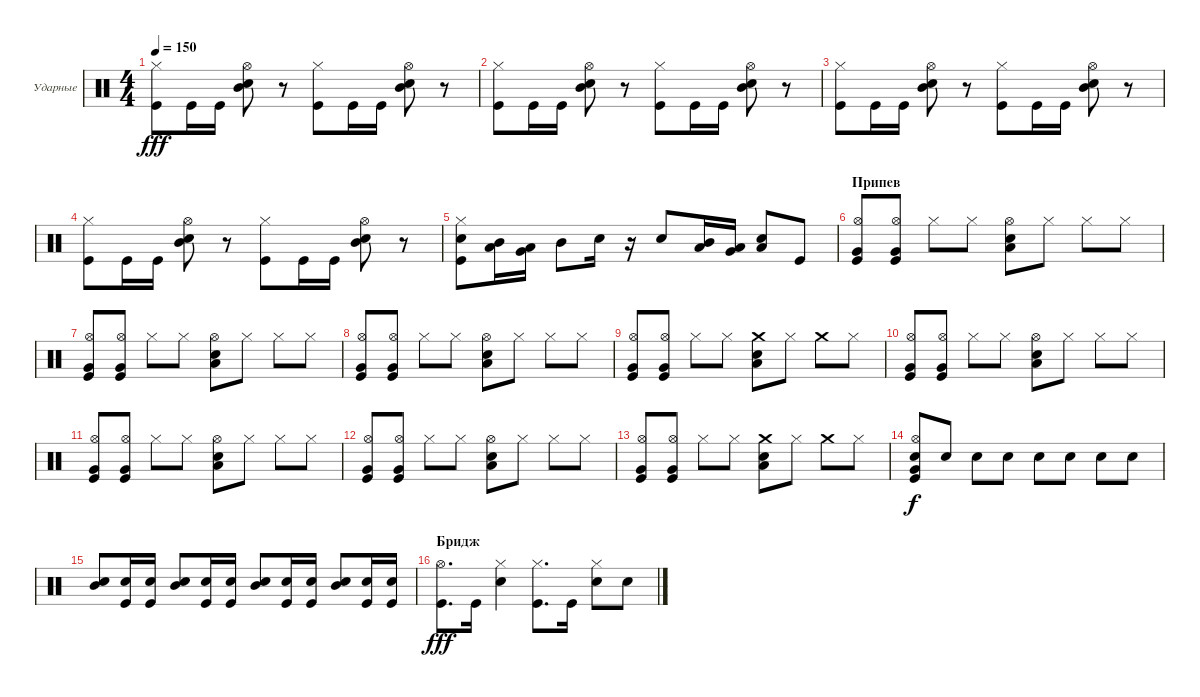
\bracketExtendMode groupsimilarinstruments
\firstSystemTrackNameOrientation horizontal
\otherSystemsTrackNameOrientation horizontal
\track ("Максим Удалов" "Ударные") {instrument percussion}
\staff {score}
\articulation defaults
\ts (4 4)
\tempo 150
\clef neutral
\ks c
("Hi-Hat (closed)" "Kick (hit)").8{dy fff} "Kick (hit)".16 "Kick (hit)".16 ("Hi-Hat (open)" "Mid Tom (hit)" "Snare (hit) 2").8 r.8 ("Hi-Hat (closed)" "Kick (hit)").8 "Kick (hit)".16 "Kick (hit)".16 ("Hi-Hat (open)" "Mid Tom (hit)" "Snare (hit) 2").8 r.8 |
("Hi-Hat (closed)" "Kick (hit)").8 "Kick (hit)".16 "Kick (hit)".16 ("Hi-Hat (open)" "Mid Tom (hit)" "Snare (hit) 2").8 r.8 ("Hi-Hat (closed)" "Kick (hit)").8 "Kick (hit)".16 "Kick (hit)".16 ("Hi-Hat (open)" "Mid Tom (hit)" "Snare (hit) 2").8 r.8 |
("Hi-Hat (closed)" "Kick (hit)").8 "Kick (hit)".16 "Kick (hit)".16 ("Hi-Hat (open)" "Mid Tom (hit)" "Snare (hit) 2").8 r.8 ("Hi-Hat (closed)" "Kick (hit)").8 "Kick (hit)".16 "Kick (hit)".16 ("Hi-Hat (open)" "Mid Tom (hit)" "Snare (hit) 2").8 r.8 |
("Hi-Hat (closed)" "Kick (hit)").8 "Kick (hit)".16 "Kick (hit)".16 ("Hi-Hat (open)" "Mid Tom (hit)" "Snare (hit) 2").8 r.8 ("Hi-Hat (closed)" "Kick (hit)").8 "Kick (hit)".16 "Kick (hit)".16 ("Hi-Hat (open)" "Mid Tom (hit)" "Snare (hit) 2").8 r.8 |
("Hi-Hat (closed)" "Snare (hit) 2" "Kick (hit)").8 ("Mid Tom (hit)" "Low Tom (hit)").16 ("Low Tom (hit)" "Very Low Tom (hit)").16 "Mid Tom (hit)".8 "Snare (hit) 2".16 r.16 "Snare (hit) 2".8 ("Mid Tom (hit)" "Low Tom (hit)").16 ("Low Tom (hit)" "Very Low Tom (hit)").16 ("Snare (hit) 2" "Low Tom (hit)").8 "Kick (hit)".8 |
\section ("" "Припев")
("Hi-Hat (open)" "Very Low Tom (hit)" "Kick (hit)").8 ("Hi-Hat (open)" "Very Low Tom (hit)" "Kick (hit)").8 "Hi-Hat (closed)".8 "Hi-Hat (closed)".8 ("Hi-Hat (open)" "Low Tom (hit)" "Snare (hit) 2").8 "Hi-Hat (closed)".8 "Hi-Hat (closed)".8 "Hi-Hat (closed)".8 |
("Hi-Hat (open)" "Very Low Tom (hit)" "Kick (hit)").8 ("Hi-Hat (open)" "Very Low Tom (hit)" "Kick (hit)").8 "Hi-Hat (closed)".8 "Hi-Hat (closed)".8 ("Hi-Hat (open)" "Low Tom (hit)" "Snare (hit) 2").8 "Hi-Hat (closed)".8 "Hi-Hat (closed)".8 "Hi-Hat (closed)".8 |
("Hi-Hat (open)" "Very Low Tom (hit)" "Kick (hit)").8 ("Hi-Hat (open)" "Very Low Tom (hit)" "Kick (hit)").8 "Hi-Hat (closed)".8 "Hi-Hat (closed)".8 ("Hi-Hat (open)" "Low Tom (hit)" "Snare (hit) 2").8 "Hi-Hat (closed)".8 "Hi-Hat (closed)".8 "Hi-Hat (closed)".8 |
("Hi-Hat (open)" "Very Low Tom (hit)" "Kick (hit)").8 ("Hi-Hat (open)" "Very Low Tom (hit)" "Kick (hit)").8 "Hi-Hat (closed)".8 "Hi-Hat (closed)".8 ("Crash medium (hit)" "Low Tom (hit)" "Snare (hit) 2").8 "Hi-Hat (closed)".8 "Crash medium (hit)".8 "Hi-Hat (closed)".8 |
("Hi-Hat (open)" "Very Low Tom (hit)" "Kick (hit)").8 ("Hi-Hat (open)" "Very Low Tom (hit)" "Kick (hit)").8 "Hi-Hat (closed)".8 "Hi-Hat (closed)".8 ("Hi-Hat (open)" "Low Tom (hit)" "Snare (hit) 2").8 "Hi-Hat (closed)".8 "Hi-Hat (closed)".8 "Hi-Hat (closed)".8 |
("Hi-Hat (open)" "Very Low Tom (hit)" "Kick (hit)").8 ("Hi-Hat (open)" "Very Low Tom (hit)" "Kick (hit)").8 "Hi-Hat (closed)".8 "Hi-Hat (closed)".8 ("Hi-Hat (open)" "Low Tom (hit)" "Snare (hit) 2").8 "Hi-Hat (closed)".8 "Hi-Hat (closed)".8 "Hi-Hat (closed)".8 |
("Hi-Hat (open)" "Very Low Tom (hit)" "Kick (hit)").8 ("Hi-Hat (open)" "Very Low Tom (hit)" "Kick (hit)").8 "Hi-Hat (closed)".8 "Hi-Hat (closed)".8 ("Hi-Hat (open)" "Low Tom (hit)" "Snare (hit) 2").8 "Hi-Hat (closed)".8 "Hi-Hat (closed)".8 "Hi-Hat (closed)".8 |
("Hi-Hat (open)" "Very Low Tom (hit)" "Kick (hit)").8 ("Hi-Hat (open)" "Very Low Tom (hit)" "Kick (hit)").8 "Hi-Hat (closed)".8 "Hi-Hat (closed)".8 ("Crash medium (hit)" "Low Tom (hit)" "Snare (hit) 2").8 "Hi-Hat (closed)".8 "Crash medium (hit)".8 "Hi-Hat (closed)".8 |
("Hi-Hat (open)" "Very Low Tom (hit)" "Kick (hit)" "Snare (hit) 2").8{dy f} "Snare (hit) 2".8 "Snare (hit) 2".8 "Snare (hit) 2".8 "Snare (hit) 2".8 "Snare (hit) 2".8 "Snare (hit) 2".8 "Snare (hit) 2".8 |
("Mid Tom (hit)" "Snare (hit) 2").8 ("Kick (hit)" "Snare (hit) 2").16 ("Kick (hit)" "Snare (hit) 2").16 ("Mid Tom (hit)" "Snare (hit) 2").8 ("Kick (hit)" "Snare (hit) 2").16 ("Kick (hit)" "Snare (hit) 2").16 ("Mid Tom (hit)" "Snare (hit) 2").8 ("Kick (hit)" "Snare (hit) 2").16 ("Kick (hit)" "Snare (hit) 2").16 ("Mid Tom (hit)" "Snare (hit) 2").8 ("Kick (hit)" "Snare (hit) 2").16 ("Kick (hit)" "Snare (hit) 2").16 |
\section ("" "Бридж")
("Hi-Hat (open)" "Kick (hit)").8{d dy fff} "Kick (hit)".16 ("Hi-Hat (closed)" "Snare (hit) 2").4 ("Hi-Hat (closed)" "Kick (hit)").8{d} "Kick (hit)".16 ("Hi-Hat (closed)" "Snare (hit) 2").8 "Snare (hit) 2".8
